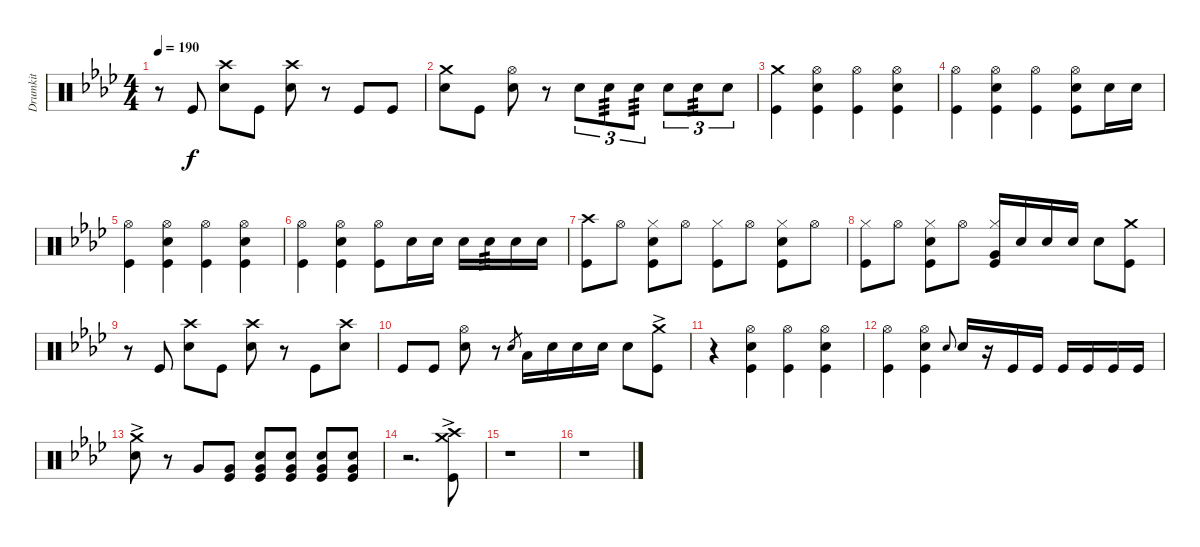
\track ("Drumkit" "Drumkit") {instrument percussion}
\staff {score}
\articulation defaults
\ts (4 4)
\tempo 190
\clef neutral
\ks ab
r.8{dy f} "Kick (hit)".8 ("Snare (hit) 2" "Crash high (hit)").8 "Kick (hit)".8 ("Snare (hit) 2" "Crash high (hit)").8 r.8 "Kick (hit)".8 "Kick (hit)".8 |
("Snare (hit) 2" "Crash medium (hit)").8 "Kick (hit)".8 ("Snare (hit) 2" "Hi-Hat (open)").8 r.8 "Snare (hit) 2".8{tu (3 2)} "Snare (hit) 2".8{tu (3 2) tp 3} "Snare (hit) 2".8{tu (3 2) tp 3} "Snare (hit) 2".8{tu (3 2)} "Snare (hit) 2".8{tu (3 2) tp 3} "Snare (hit) 2".8{tu (3 2)} |
("Kick (hit)" "Crash medium (hit)").4 ("Snare (hit) 2" "Hi-Hat (open)" "Kick (hit)").4 ("Kick (hit)" "Hi-Hat (open)").4 ("Snare (hit) 2" "Hi-Hat (open)" "Kick (hit)").4 |
("Kick (hit)" "Hi-Hat (open)").4 ("Snare (hit) 2" "Hi-Hat (open)" "Kick (hit)").4 ("Kick (hit)" "Hi-Hat (open)").4 ("Snare (hit) 2" "Hi-Hat (open)" "Kick (hit)").8 "Snare (hit) 2".16 "Snare (hit) 2".16 |
("Kick (hit)" "Hi-Hat (open)").4 ("Snare (hit) 2" "Hi-Hat (open)" "Kick (hit)").4 ("Kick (hit)" "Hi-Hat (open)").4 ("Snare (hit) 2" "Hi-Hat (open)" "Kick (hit)").4 |
("Kick (hit)" "Hi-Hat (open)").4 ("Snare (hit) 2" "Hi-Hat (open)" "Kick (hit)").4 ("Kick (hit)" "Hi-Hat (open)").8 "Snare (hit) 2".16 "Snare (hit) 2".16 "Snare (hit) 2".16 "Snare (hit) 2".16{tp 3} "Snare (hit) 2".16 "Snare (hit) 2".16 |
("Kick (hit)" "Crash high (hit)").8 "Hi-Hat (open)".8 ("Kick (hit)" "Snare (hit) 2" "Hi-Hat (closed)").8 "Hi-Hat (open)".8 ("Kick (hit)" "Hi-Hat (closed)").8 "Hi-Hat (open)".8 ("Kick (hit)" "Hi-Hat (closed)" "Snare (hit) 2").8 "Hi-Hat (open)".8 |
("Kick (hit)" "Hi-Hat (closed)").8 "Hi-Hat (open)".8 ("Kick (hit)" "Snare (hit) 2" "Hi-Hat (closed)").8 "Hi-Hat (open)".8 ("Hi-Hat (closed)" "Very Low Tom (hit)" "Kick (hit)").16 "Snare (hit) 2".16 "Snare (hit) 2".16 "Snare (hit) 2".16 "Snare (hit) 2".8 ("Kick (hit)" "Crash medium (hit)").8 |
r.8 "Kick (hit)".8 ("Snare (hit) 2" "Crash high (hit)").8 "Kick (hit)".8 ("Snare (hit) 2" "Crash high (hit)").8 r.8 "Kick (hit)".8 ("Snare (hit) 2" "Crash high (hit)").8 |
"Kick (hit)".8 "Kick (hit)".8 ("Snare (hit) 2" "Hi-Hat (open)").8 r.8 "Snare (hit)".8{gr} "Low Tom (hit)".16 "Snare (hit) 2".16 "Snare (hit) 2".16 "Snare (hit) 2".16 "Snare (hit) 2".8 ("Kick (hit)" "Crash medium (hit)"{ac}).8 |
r.4 ("Snare (hit) 2" "Hi-Hat (open)" "Kick (hit)").4 ("Kick (hit)" "Hi-Hat (open)").4 ("Snare (hit) 2" "Hi-Hat (open)" "Kick (hit)").4 |
("Kick (hit)" "Hi-Hat (open)").4 ("Snare (hit) 2" "Hi-Hat (open)" "Kick (hit)").4 "Snare (hit)".8{gr onbeat} "Snare (hit) 2".16 r.16 "Kick (hit)".16 "Kick (hit)".16 "Kick (hit)".16 "Kick (hit)".16 "Kick (hit)".16 "Kick (hit)".16 |
("Snare (hit) 2" "Crash medium (hit)"{ac}).8 r.8 "Very Low Tom (hit)".8 ("Very Low Tom (hit)" "Kick (hit)").8 ("Snare (hit) 2" "Very Low Tom (hit)" "Kick (hit)").8 ("Snare (hit) 2" "Very Low Tom (hit)" "Kick (hit)").8 ("Snare (hit) 2" "Very Low Tom (hit)" "Kick (hit)").8 ("Snare (hit) 2" "Very Low Tom (hit)" "Kick (hit)").8 |
r.2{d} ("Kick (hit)" "Crash medium (hit)"{ac} "Crash high (hit)"{ac}).8 |
r.1 |
r.1
